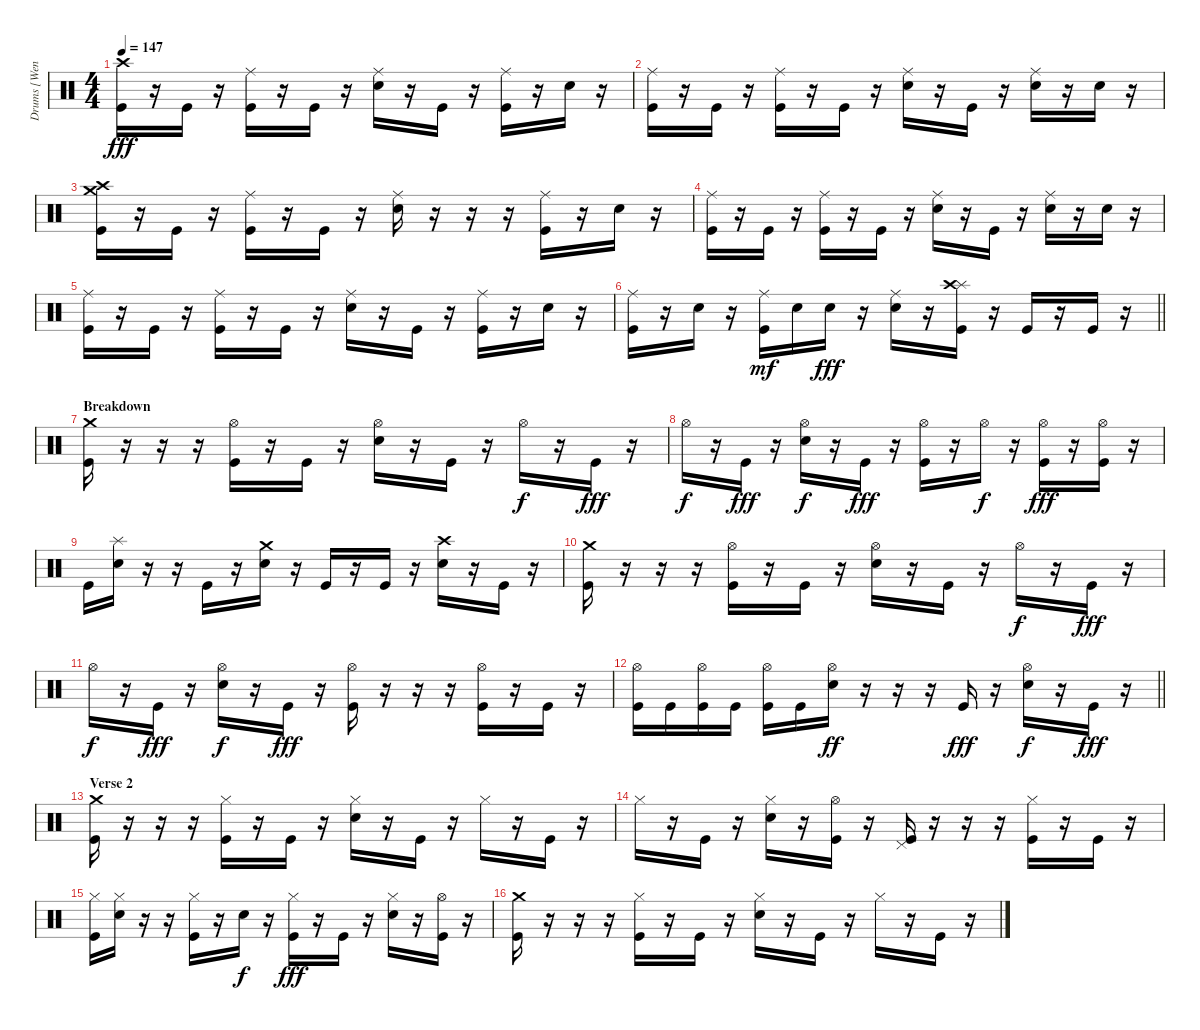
\track ("Drums [Wengren]" "Drums [Wen") {instrument percussion}
\staff {score}
\articulation defaults
\ts (4 4)
\tempo 147
\clef neutral
\ks c
("Crash high (hit)" "Kick (hit)").16{dy fff} r.16 "Kick (hit)".16 r.16 ("Ride (middle)" "Kick (hit)").16 r.16 "Kick (hit)".16 r.16 ("Ride (middle)" "Snare (hit) 2").16 r.16 "Kick (hit)".16 r.16 ("Ride (middle)" "Kick (hit)").16 r.16 "Snare (hit) 2".16 r.16 |
("Ride (middle)" "Kick (hit)").16 r.16 "Kick (hit)".16 r.16 ("Ride (middle)" "Kick (hit)").16 r.16 "Kick (hit)".16 r.16 ("Ride (middle)" "Snare (hit) 2").16 r.16 "Kick (hit)".16 r.16 ("Ride (middle)" "Snare (hit) 2").16 r.16 "Snare (hit) 2".16 r.16 |
("Crash high (hit)" "Crash medium (hit)" "Kick (hit)").16 r.16 "Kick (hit)".16 r.16 ("Ride (middle)" "Kick (hit)").16 r.16 "Kick (hit)".16 r.16 ("Ride (middle)" "Snare (hit) 2").16 r.16 r.16 r.16 ("Ride (middle)" "Kick (hit)").16 r.16 "Snare (hit) 2".16 r.16 |
("Ride (middle)" "Kick (hit)").16 r.16 "Kick (hit)".16 r.16 ("Ride (middle)" "Kick (hit)").16 r.16 "Kick (hit)".16 r.16 ("Ride (middle)" "Snare (hit) 2").16 r.16 "Kick (hit)".16 r.16 ("Ride (middle)" "Snare (hit) 2").16 r.16 "Snare (hit) 2".16 r.16 |
("Ride (middle)" "Kick (hit)").16 r.16 "Kick (hit)".16 r.16 ("Ride (middle)" "Kick (hit)").16 r.16 "Kick (hit)".16 r.16 ("Ride (middle)" "Snare (hit) 2").16 r.16 "Kick (hit)".16 r.16 ("Ride (middle)" "Kick (hit)").16 r.16 "Snare (hit) 2".16 r.16 |
\barLineRight lightlight
("Ride (middle)" "Kick (hit)").16 r.16 "Snare (hit) 2".16 r.16 ("Ride (middle)" "Kick (hit)").16{dy mf} "Snare (hit) 2".16 "Snare (hit) 2".16{dy fff} r.16 ("Ride (middle)" "Snare (hit) 2").16 r.16 ("Splash (hit)" "Crash high (hit)" "Kick (hit)").16 r.16 "Kick (hit)".16 r.16 "Kick (hit)".16 r.16 |
\section ("" "Breakdown")
("Crash medium (hit)" "Kick (hit)").16 r.16 r.16 r.16 ("Hi-Hat (open)" "Kick (hit)").16 r.16 "Kick (hit)".16 r.16 ("Hi-Hat (open)" "Snare (hit) 2").16 r.16 "Kick (hit)".16 r.16 "Hi-Hat (open)".16{dy f} r.16 "Kick (hit)".16{dy fff} r.16 |
"Hi-Hat (open)".16{dy f} r.16 "Kick (hit)".16{dy fff} r.16 ("Hi-Hat (open)" "Snare (hit) 2").16{dy f} r.16 "Kick (hit)".16{dy fff} r.16 ("Hi-Hat (open)" "Kick (hit)").16 r.16 "Hi-Hat (open)".16{dy f} r.16 ("Hi-Hat (open)" "Kick (hit)").16{dy fff} r.16 ("Hi-Hat (open)" "Kick (hit)").16 r.16 |
"Kick (hit)".16 ("Splash (hit)" "Snare (hit) 2").16 r.16 r.16 "Kick (hit)".16 r.16 ("Crash medium (hit)" "Snare (hit) 2").16 r.16 "Kick (hit)".16 r.16 "Kick (hit)".16 r.16 ("Crash high (hit)" "Snare (hit) 2").16 r.16 "Kick (hit)".16 r.16 |
("Crash medium (hit)" "Kick (hit)").16 r.16 r.16 r.16 ("Hi-Hat (open)" "Kick (hit)").16 r.16 "Kick (hit)".16 r.16 ("Hi-Hat (open)" "Snare (hit) 2").16 r.16 "Kick (hit)".16 r.16 "Hi-Hat (open)".16{dy f} r.16 "Kick (hit)".16{dy fff} r.16 |
"Hi-Hat (open)".16{dy f} r.16 "Kick (hit)".16{dy fff} r.16 ("Hi-Hat (open)" "Snare (hit) 2").16{dy f} r.16 "Kick (hit)".16{dy fff} r.16 ("Hi-Hat (open)" "Kick (hit)").16 r.16 r.16 r.16 ("Hi-Hat (open)" "Kick (hit)").16 r.16 "Kick (hit)".16 r.16 |
\barLineRight lightlight
("Hi-Hat (open)" "Kick (hit)").16 "Kick (hit)".16 ("Hi-Hat (open)" "Kick (hit)").16 "Kick (hit)".16 ("Hi-Hat (open)" "Kick (hit)").16 "Kick (hit)".16 ("Hi-Hat (open)" "Snare (hit) 2").16{dy ff} r.16 r.16 r.16 "Kick (hit)".16{dy fff} r.16 ("Hi-Hat (open)" "Snare (hit) 2").16{dy f} r.16 "Kick (hit)".16{dy fff} r.16 |
\section ("" "Verse 2")
("Crash medium (hit)" "Kick (hit)").16 r.16 r.16 r.16 ("Hi-Hat (closed)" "Kick (hit)").16 r.16 "Kick (hit)".16 r.16 ("Hi-Hat (closed)" "Snare (hit) 2").16 r.16 "Kick (hit)".16 r.16 "Hi-Hat (closed)".16 r.16 "Kick (hit)".16 r.16 |
"Hi-Hat (closed)".16 r.16 "Kick (hit)".16 r.16 ("Hi-Hat (closed)" "Snare (hit) 2").16 r.16 ("Hi-Hat (open)" "Kick (hit)").16 r.16 ("Pedal Hi-Hat (hit)" "Kick (hit)").16 r.16 r.16 r.16 ("Hi-Hat (closed)" "Kick (hit)").16 r.16 "Kick (hit)".16 r.16 |
("Hi-Hat (closed)" "Kick (hit)").16 ("Hi-Hat (closed)" "Snare (hit) 2").16 r.16 r.16 ("Hi-Hat (closed)" "Kick (hit)").16 r.16 "Snare (hit) 2".16{dy f} r.16 ("Hi-Hat (closed)" "Kick (hit)").16{dy fff} r.16 "Kick (hit)".16 r.16 ("Hi-Hat (closed)" "Snare (hit) 2").16 r.16 ("Hi-Hat (open)" "Kick (hit)").16 r.16 |
("Crash medium (hit)" "Kick (hit)").16 r.16 r.16 r.16 ("Hi-Hat (closed)" "Kick (hit)").16 r.16 "Kick (hit)".16 r.16 ("Hi-Hat (closed)" "Snare (hit) 2").16 r.16 "Kick (hit)".16 r.16 "Hi-Hat (closed)".16 r.16 "Kick (hit)".16 r.16
